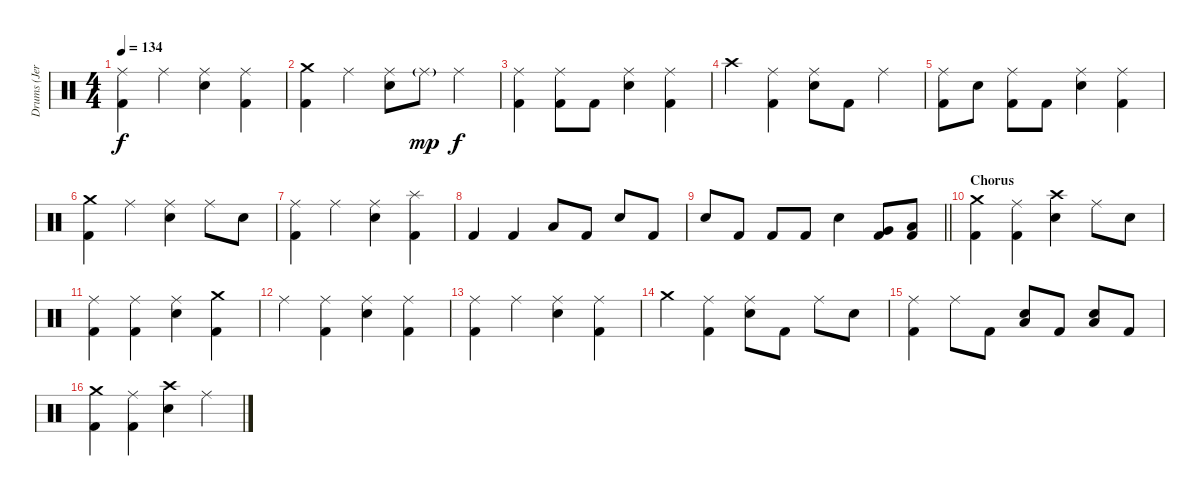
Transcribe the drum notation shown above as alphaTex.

\track ("Drums (Jeremy Taggart)" "Drums (Jer") {instrument percussion}
\staff
\articulation defaults
\ts (4 4)
\tempo 134
\clef neutral
\ks c
("Ride (middle)" "Kick (hit) 2").4{dy f} "Ride (middle)".4 ("Ride (middle)" "Snare (hit) 2").4 ("Ride (middle)" "Kick (hit) 2").4 |
("Crash medium (hit)" "Kick (hit) 2").4 "Ride (middle)".4 ("Ride (middle)" "Snare (hit) 2").8 "Ride (middle)"{g}.8{dy mp} "Ride (middle)".4{dy f} |
("Ride (middle)" "Kick (hit) 2").4 ("Ride (middle)" "Kick (hit) 2").8 "Kick (hit) 2".8 ("Ride (middle)" "Snare (hit) 2").4 ("Ride (middle)" "Kick (hit) 2").4 |
"Crash high (hit)".4 ("Ride (middle)" "Kick (hit) 2").4 ("Ride (middle)" "Snare (hit) 2").8 "Kick (hit) 2".8 "Ride (middle)".4 |
("Ride (middle)" "Kick (hit) 2").8 "Snare (hit) 2".8 ("Ride (middle)" "Kick (hit) 2").8 "Kick (hit) 2".8 ("Ride (middle)" "Snare (hit) 2").4 ("Ride (middle)" "Kick (hit) 2").4 |
("Crash medium (hit)" "Kick (hit) 2").4 "Ride (middle)".4 ("Ride (middle)" "Snare (hit) 2").4 "Ride (middle)".8 "Snare (hit) 2".8 |
("Ride (middle)" "Kick (hit) 2").4 "Ride (middle)".4 ("Ride (middle)" "Snare (hit) 2").4 ("Splash (hit)" "Kick (hit) 2").4 |
"Kick (hit) 2".4 "Kick (hit) 2".4 "Low Tom (hit)".8 "Kick (hit) 2".8 "Snare (hit) 2".8 "Kick (hit) 2".8 |
\barLineRight lightlight "Snare (hit) 2".8 "Kick (hit) 2".8 "Kick (hit) 2".8 "Kick (hit) 2".8 "Snare (hit) 2".4
("Very Low Tom (hit)" "Kick (hit) 2").8 ("Low Floor Tom (hit)" "Kick (hit) 2").8 |
\section ("" "Chorus")
("Crash medium (hit)" "Kick (hit) 2").4 ("Ride (middle)" "Kick (hit) 2").4 ("Crash high (hit)" "Snare (hit) 2").4 "Ride (middle)".8 "Snare (hit) 2".8 |
("Ride (middle)" "Kick (hit) 2").4 ("Ride (middle)" "Kick (hit) 2").4 ("Ride (middle)" "Snare (hit) 2").4 ("Crash medium (hit)" "Kick (hit) 2").4 |
"Ride (middle)".4 ("Ride (middle)" "Kick (hit) 2").4 ("Ride (middle)" "Snare (hit) 2").4 ("Ride (middle)" "Kick (hit) 2").4 |
("Ride (middle)" "Kick (hit) 2").4 "Ride (middle)".4 ("Ride (middle)" "Snare (hit) 2").4 ("Ride (middle)" "Kick (hit) 2").4 |
"Crash medium (hit)".4 ("Ride (middle)" "Kick (hit) 2").4 ("Ride (middle)" "Snare (hit) 2").8 "Kick (hit) 2".8 "Ride (middle)".8 "Snare (hit) 2".8 |
("Ride (middle)" "Kick (hit) 2").4 "Ride (middle)".8 "Kick (hit) 2".8 ("Low Floor Tom (hit)" "Snare (hit) 2").8 "Kick (hit) 2".8 ("Low Floor Tom (hit)" "Snare (hit) 2").8 "Kick (hit) 2".8 |
("Crash medium (hit)" "Kick (hit) 2").4 ("Ride (middle)" "Kick (hit) 2").4 ("Crash high (hit)" "Snare (hit) 2").4 "Ride (middle)".4
